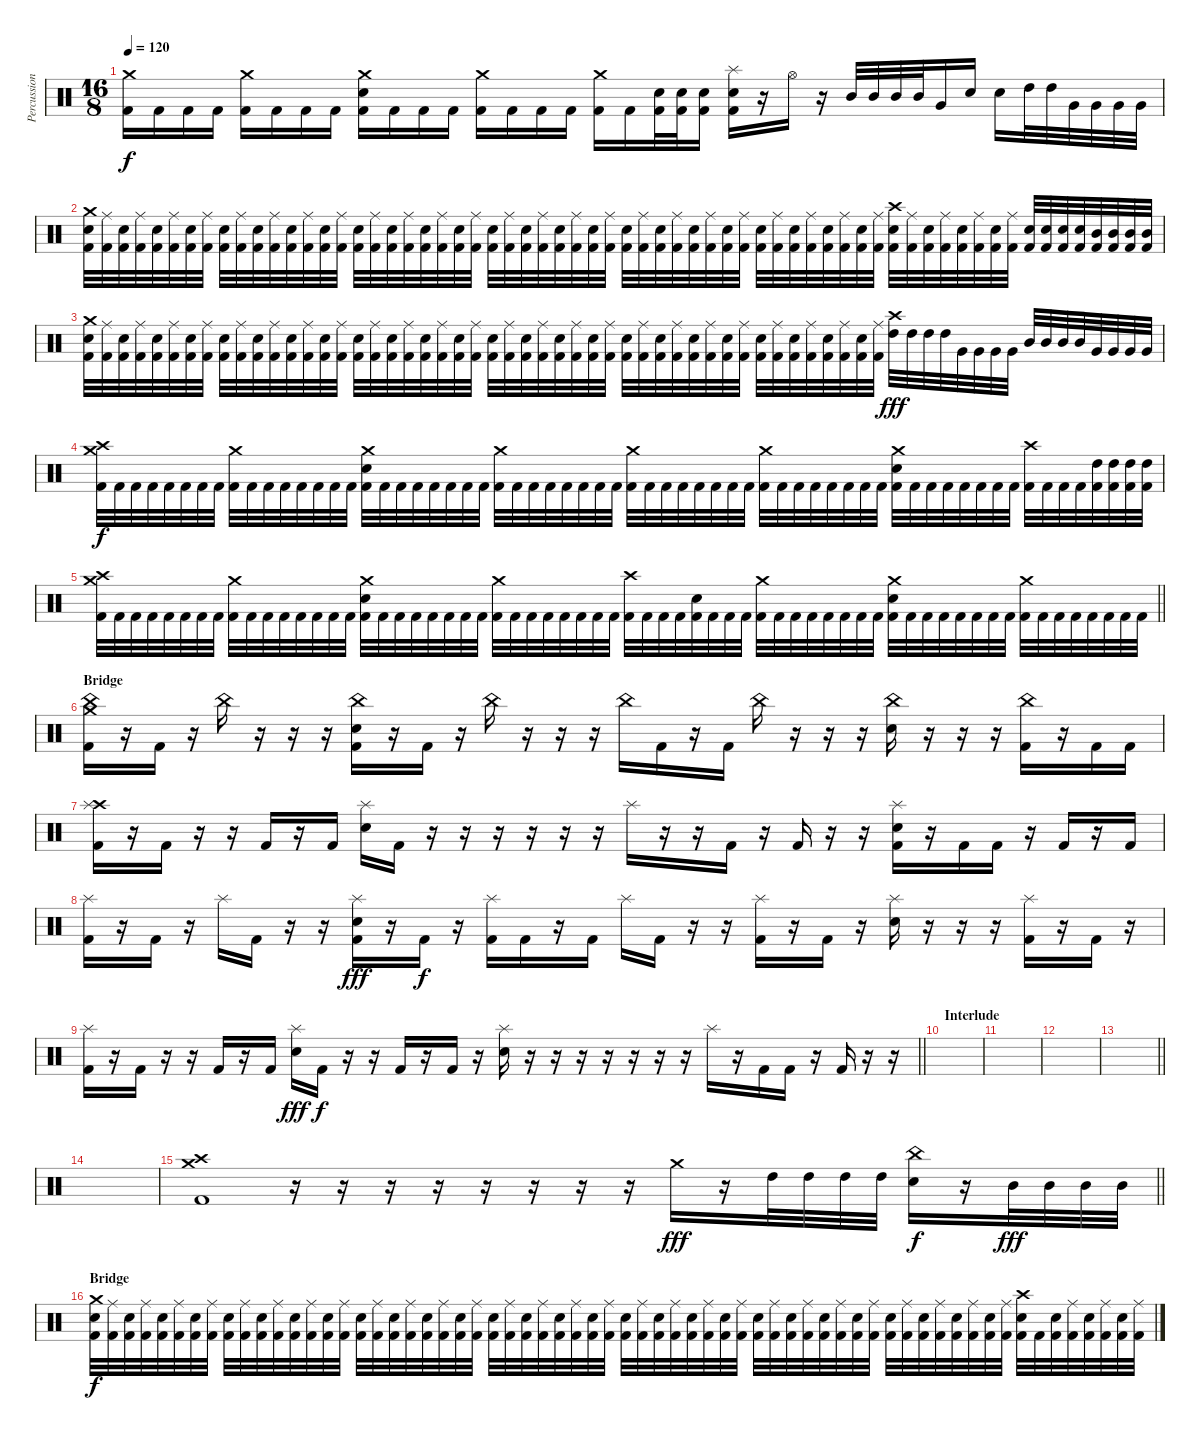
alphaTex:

\track ("Percussion" "Percussion") {instrument percussion}
\staff {score}
\articulation defaults
\ts (16 8)
\tempo 120
\clef neutral
\ks c
("Crash medium (hit)" "Kick (hit) 2").16{dy f} "Kick (hit) 2".16 "Kick (hit) 2".16 "Kick (hit) 2".16 ("Crash medium (hit)" "Kick (hit) 2").16 "Kick (hit) 2".16 "Kick (hit) 2".16 "Kick (hit) 2".16 ("Crash medium (hit)" "Snare (hit) 2" "Kick (hit) 2").16 "Kick (hit) 2".16 "Kick (hit) 2".16 "Kick (hit) 2".16 ("Crash medium (hit)" "Kick (hit) 2").16 "Kick (hit) 2".16 "Kick (hit) 2".16 "Kick (hit) 2".16 ("Crash medium (hit)" "Kick (hit) 2").16 "Kick (hit) 2".16 ("Snare (hit) 2" "Kick (hit) 2").32 ("Snare (hit) 2" "Kick (hit) 2").32 ("Snare (hit) 2" "Kick (hit) 2").16 ("Splash (hit)" "Snare (hit) 2" "Kick (hit) 2").16 r.16 "Hi-Hat (open)".16 r.16 "Mid Tom (hit)".32 "Mid Tom (hit)".32 "Mid Tom (hit)".32 "Mid Tom (hit)".32 "Very Low Tom (hit)".16 "Snare (hit) 2".16 "Snare (hit) 2".16 "High Tom (hit)".32 "High Tom (hit)".32 "Very Low Tom (hit)".32 "Very Low Tom (hit)".32 "Very Low Tom (hit)".32 "Very Low Tom (hit)".32 |
("Crash medium (hit)" "Snare (hit) 2" "Kick (hit) 2").32 ("Ride (middle)" "Kick (hit) 2").32 ("Snare (hit) 2" "Kick (hit) 2").32 ("Ride (middle)" "Kick (hit) 2").32 ("Snare (hit) 2" "Kick (hit) 2").32 ("Ride (middle)" "Kick (hit) 2").32 ("Snare (hit) 2" "Kick (hit) 2").32 ("Ride (middle)" "Kick (hit) 2").32 ("Snare (hit) 2" "Kick (hit) 2").32 ("Ride (middle)" "Kick (hit) 2").32 ("Snare (hit) 2" "Kick (hit) 2").32 ("Ride (middle)" "Kick (hit) 2").32 ("Snare (hit) 2" "Kick (hit) 2").32 ("Ride (middle)" "Kick (hit) 2").32 ("Snare (hit) 2" "Kick (hit) 2").32 ("Ride (middle)" "Kick (hit) 2").32 ("Snare (hit) 2" "Kick (hit) 2").32 ("Ride (middle)" "Kick (hit) 2").32 ("Snare (hit) 2" "Kick (hit) 2").32 ("Ride (middle)" "Kick (hit) 2").32 ("Snare (hit) 2" "Kick (hit) 2").32 ("Ride (middle)" "Kick (hit) 2").32 ("Snare (hit) 2" "Kick (hit) 2").32 ("Ride (middle)" "Kick (hit) 2").32 ("Snare (hit) 2" "Kick (hit) 2").32 ("Ride (middle)" "Kick (hit) 2").32 ("Snare (hit) 2" "Kick (hit) 2").32 ("Ride (middle)" "Kick (hit) 2").32 ("Snare (hit) 2" "Kick (hit) 2").32 ("Ride (middle)" "Kick (hit) 2").32 ("Snare (hit) 2" "Kick (hit) 2").32 ("Ride (middle)" "Kick (hit) 2").32 ("Snare (hit) 2" "Kick (hit) 2").32 ("Ride (middle)" "Kick (hit) 2").32 ("Snare (hit) 2" "Kick (hit) 2").32 ("Ride (middle)" "Kick (hit) 2").32 ("Snare (hit) 2" "Kick (hit) 2").32 ("Ride (middle)" "Kick (hit) 2").32 ("Snare (hit) 2" "Kick (hit) 2").32 ("Ride (middle)" "Kick (hit) 2").32 ("Snare (hit) 2" "Kick (hit) 2").32 ("Ride (middle)" "Kick (hit) 2").32 ("Snare (hit) 2" "Kick (hit) 2").32 ("Ride (middle)" "Kick (hit) 2").32 ("Snare (hit) 2" "Kick (hit) 2").32 ("Ride (middle)" "Kick (hit) 2").32 ("Snare (hit) 2" "Kick (hit) 2").32 ("Ride (middle)" "Kick (hit) 2").32 ("Crash high (hit)" "Snare (hit) 2" "Kick (hit) 2").32 ("Ride (middle)" "Kick (hit) 2").32 ("Snare (hit) 2" "Kick (hit) 2").32 ("Ride (middle)" "Kick (hit) 2").32 ("Snare (hit) 2" "Kick (hit) 2").32 ("Ride (middle)" "Kick (hit) 2").32 ("Snare (hit) 2" "Kick (hit) 2").32 ("Ride (middle)" "Kick (hit) 2").32 ("Snare (hit) 2" "Kick (hit) 2").32 ("Snare (hit) 2" "Kick (hit) 2").32 ("Snare (hit) 2" "Kick (hit) 2").32 ("Snare (hit) 2" "Kick (hit) 2").32 ("Mid Tom (hit)" "Kick (hit) 2").32 ("Mid Tom (hit)" "Kick (hit) 2").32 ("Mid Tom (hit)" "Kick (hit) 2").32 ("Mid Tom (hit)" "Kick (hit) 2").32 |
("Crash medium (hit)" "Snare (hit) 2" "Kick (hit) 2").32 ("Ride (middle)" "Kick (hit) 2").32 ("Snare (hit) 2" "Kick (hit) 2").32 ("Ride (middle)" "Kick (hit) 2").32 ("Snare (hit) 2" "Kick (hit) 2").32 ("Ride (middle)" "Kick (hit) 2").32 ("Snare (hit) 2" "Kick (hit) 2").32 ("Ride (middle)" "Kick (hit) 2").32 ("Snare (hit) 2" "Kick (hit) 2").32 ("Ride (middle)" "Kick (hit) 2").32 ("Snare (hit) 2" "Kick (hit) 2").32 ("Ride (middle)" "Kick (hit) 2").32 ("Snare (hit) 2" "Kick (hit) 2").32 ("Ride (middle)" "Kick (hit) 2").32 ("Snare (hit) 2" "Kick (hit) 2").32 ("Ride (middle)" "Kick (hit) 2").32 ("Snare (hit) 2" "Kick (hit) 2").32 ("Ride (middle)" "Kick (hit) 2").32 ("Snare (hit) 2" "Kick (hit) 2").32 ("Ride (middle)" "Kick (hit) 2").32 ("Snare (hit) 2" "Kick (hit) 2").32 ("Ride (middle)" "Kick (hit) 2").32 ("Snare (hit) 2" "Kick (hit) 2").32 ("Ride (middle)" "Kick (hit) 2").32 ("Snare (hit) 2" "Kick (hit) 2").32 ("Ride (middle)" "Kick (hit) 2").32 ("Snare (hit) 2" "Kick (hit) 2").32 ("Ride (middle)" "Kick (hit) 2").32 ("Snare (hit) 2" "Kick (hit) 2").32 ("Ride (middle)" "Kick (hit) 2").32 ("Snare (hit) 2" "Kick (hit) 2").32 ("Ride (middle)" "Kick (hit) 2").32 ("Snare (hit) 2" "Kick (hit) 2").32 ("Ride (middle)" "Kick (hit) 2").32 ("Snare (hit) 2" "Kick (hit) 2").32 ("Ride (middle)" "Kick (hit) 2").32 ("Snare (hit) 2" "Kick (hit) 2").32 ("Ride (middle)" "Kick (hit) 2").32 ("Snare (hit) 2" "Kick (hit) 2").32 ("Ride (middle)" "Kick (hit) 2").32 ("Snare (hit) 2" "Kick (hit) 2").32 ("Ride (middle)" "Kick (hit) 2").32 ("Snare (hit) 2" "Kick (hit) 2").32 ("Ride (middle)" "Kick (hit) 2").32 ("Snare (hit) 2" "Kick (hit) 2").32 ("Ride (middle)" "Kick (hit) 2").32 ("Snare (hit) 2" "Kick (hit) 2").32 ("Ride (middle)" "Kick (hit) 2").32 ("Crash high (hit)" "High Tom (hit)").32{dy fff} "High Tom (hit)".32 "High Tom (hit)".32 "High Tom (hit)".32 "Very Low Tom (hit)".32 "Very Low Tom (hit)".32 "Very Low Tom (hit)".32 "Very Low Tom (hit)".32 "Mid Tom (hit)".32 "Mid Tom (hit)".32 "Mid Tom (hit)".32 "Mid Tom (hit)".32 "Very Low Tom (hit)".32 "Very Low Tom (hit)".32 "Very Low Tom (hit)".32 "Very Low Tom (hit)".32 |
("Crash medium (hit)" "Crash high (hit)" "Kick (hit) 2").32{dy f} "Kick (hit) 2".32 "Kick (hit) 2".32 "Kick (hit) 2".32 "Kick (hit) 2".32 "Kick (hit) 2".32 "Kick (hit) 2".32 "Kick (hit) 2".32 ("Crash medium (hit)" "Kick (hit) 2").32 "Kick (hit) 2".32 "Kick (hit) 2".32 "Kick (hit) 2".32 "Kick (hit) 2".32 "Kick (hit) 2".32 "Kick (hit) 2".32 "Kick (hit) 2".32 ("Crash medium (hit)" "Snare (hit) 2" "Kick (hit) 2").32 "Kick (hit) 2".32 "Kick (hit) 2".32 "Kick (hit) 2".32 "Kick (hit) 2".32 "Kick (hit) 2".32 "Kick (hit) 2".32 "Kick (hit) 2".32 ("Crash medium (hit)" "Kick (hit) 2").32 "Kick (hit) 2".32 "Kick (hit) 2".32 "Kick (hit) 2".32 "Kick (hit) 2".32 "Kick (hit) 2".32 "Kick (hit) 2".32 "Kick (hit) 2".32 ("Crash medium (hit)" "Kick (hit) 2").32 "Kick (hit) 2".32 "Kick (hit) 2".32 "Kick (hit) 2".32 "Kick (hit) 2".32 "Kick (hit) 2".32 "Kick (hit) 2".32 "Kick (hit) 2".32 ("Crash medium (hit)" "Kick (hit) 2").32 "Kick (hit) 2".32 "Kick (hit) 2".32 "Kick (hit) 2".32 "Kick (hit) 2".32 "Kick (hit) 2".32 "Kick (hit) 2".32 "Kick (hit) 2".32 ("Crash medium (hit)" "Snare (hit) 2" "Kick (hit) 2").32 "Kick (hit) 2".32 "Kick (hit) 2".32 "Kick (hit) 2".32 "Kick (hit) 2".32 "Kick (hit) 2".32 "Kick (hit) 2".32 "Kick (hit) 2".32 ("Crash high (hit)" "Kick (hit) 2").32 "Kick (hit) 2".32 "Kick (hit) 2".32 "Kick (hit) 2".32 ("High Tom (hit)" "Kick (hit) 2").32 ("High Tom (hit)" "Kick (hit) 2").32 ("High Tom (hit)" "Kick (hit) 2").32 ("High Tom (hit)" "Kick (hit) 2").32 |
\barLineRight lightlight
("Crash medium (hit)" "Crash high (hit)" "Kick (hit) 2").32 "Kick (hit) 2".32 "Kick (hit) 2".32 "Kick (hit) 2".32 "Kick (hit) 2".32 "Kick (hit) 2".32 "Kick (hit) 2".32 "Kick (hit) 2".32 ("Crash medium (hit)" "Kick (hit) 2").32 "Kick (hit) 2".32 "Kick (hit) 2".32 "Kick (hit) 2".32 "Kick (hit) 2".32 "Kick (hit) 2".32 "Kick (hit) 2".32 "Kick (hit) 2".32 ("Crash medium (hit)" "Snare (hit) 2" "Kick (hit) 2").32 "Kick (hit) 2".32 "Kick (hit) 2".32 "Kick (hit) 2".32 "Kick (hit) 2".32 "Kick (hit) 2".32 "Kick (hit) 2".32 "Kick (hit) 2".32 ("Crash medium (hit)" "Kick (hit) 2").32 "Kick (hit) 2".32 "Kick (hit) 2".32 "Kick (hit) 2".32 "Kick (hit) 2".32 "Kick (hit) 2".32 "Kick (hit) 2".32 "Kick (hit) 2".32 ("Crash high (hit)" "Kick (hit) 2").32 "Kick (hit) 2".32 "Kick (hit) 2".32 "Kick (hit) 2".32 ("Snare (hit) 2" "Kick (hit) 2").32 "Kick (hit) 2".32 "Kick (hit) 2".32 "Kick (hit) 2".32 ("Crash medium (hit)" "Kick (hit) 2").32 "Kick (hit) 2".32 "Kick (hit) 2".32 "Kick (hit) 2".32 "Kick (hit) 2".32 "Kick (hit) 2".32 "Kick (hit) 2".32 "Kick (hit) 2".32 ("Crash medium (hit)" "Snare (hit) 2" "Kick (hit) 2").32 "Kick (hit) 2".32 "Kick (hit) 2".32 "Kick (hit) 2".32 "Kick (hit) 2".32 "Kick (hit) 2".32 "Kick (hit) 2".32 "Kick (hit) 2".32 ("Crash medium (hit)" "Kick (hit) 2").32 "Kick (hit) 2".32 "Kick (hit) 2".32 "Kick (hit) 2".32 "Kick (hit) 2".32 "Kick (hit) 2".32 "Kick (hit) 2".32 "Kick (hit) 2".32 |
\section ("" "Bridge")
("Crash medium (hit)" "China (hit)" "Kick (hit) 2").16 r.16 "Kick (hit) 2".16 r.16 "China (hit)".16 r.16 r.16 r.16 ("China (hit)" "Snare (hit) 2" "Kick (hit) 2").16 r.16 "Kick (hit) 2".16 r.16 "China (hit)".16 r.16 r.16 r.16 "China (hit)".16 "Kick (hit) 2".16 r.16 "Kick (hit) 2".16 "China (hit)".16 r.16 r.16 r.16 ("China (hit)" "Snare (hit) 2").16 r.16 r.16 r.16 ("China (hit)" "Kick (hit) 2").16 r.16 "Kick (hit) 2".16 "Kick (hit) 2".16 |
("Crash high (hit)" "Splash (hit)" "Kick (hit) 2").16 r.16 "Kick (hit) 2".16 r.16 r.16 "Kick (hit) 2".16 r.16 "Kick (hit) 2".16 ("Splash (hit)" "Snare (hit) 2").16 "Kick (hit) 2".16 r.16 r.16 r.16 r.16 r.16 r.16 "Splash (hit)".16 r.16 r.16 "Kick (hit) 2".16 r.16 "Kick (hit) 2".16 r.16 r.16 ("Splash (hit)" "Snare (hit) 2" "Kick (hit) 2").16 r.16 "Kick (hit) 2".16 "Kick (hit) 2".16 r.16 "Kick (hit) 2".16 r.16 "Kick (hit) 2".16 |
("Splash (hit)" "Kick (hit) 2").16 r.16 "Kick (hit) 2".16 r.16 "Splash (hit)".16 "Kick (hit) 2".16 r.16 r.16 ("Splash (hit)" "Snare (hit) 2" "Kick (hit) 2").16{dy fff} r.16 "Kick (hit) 2".16{dy f} r.16 ("Splash (hit)" "Kick (hit) 2").16 "Kick (hit) 2".16 r.16 "Kick (hit) 2".16 "Splash (hit)".16 "Kick (hit) 2".16 r.16 r.16 ("Splash (hit)" "Kick (hit) 2").16 r.16 "Kick (hit) 2".16 r.16 ("Splash (hit)" "Snare (hit) 2").16 r.16 r.16 r.16 ("Splash (hit)" "Kick (hit) 2").16 r.16 "Kick (hit) 2".16 r.16 |
\barLineRight lightlight
("Splash (hit)" "Kick (hit) 2").16 r.16 "Kick (hit) 2".16 r.16 r.16 "Kick (hit) 2".16 r.16 "Kick (hit) 2".16 ("Splash (hit)" "Snare (hit) 2").16{dy fff} "Kick (hit) 2".16{dy f} r.16 r.16 "Kick (hit) 2".16 r.16 "Kick (hit) 2".16 r.16 ("Splash (hit)" "Snare (hit) 2").16 r.16 r.16 r.16 r.16 r.16 r.16 r.16 "Splash (hit)".16 r.16 "Kick (hit) 2".16 "Kick (hit) 2".16 r.16 "Kick (hit) 2".16 r.16 r.16 |
\section ("" "Interlude")
|
|
|
\barLineRight lightlight
|
|
\barLineRight lightlight
("Crash medium (hit)" "Crash high (hit)" "Kick (hit) 2").1 r.16 r.16 r.16 r.16 r.16 r.16 r.16 r.16 "Crash medium (hit)".16{dy fff} r.16 "High Tom (hit)".32 "High Tom (hit)".32 "High Tom (hit)".32 "High Tom (hit)".32 ("China (hit)" "Snare (hit) 2").16{dy f} r.16 "Mid Tom (hit)".32{dy fff} "Mid Tom (hit)".32 "Mid Tom (hit)".32 "Mid Tom (hit)".32 |
\section ("" "Bridge")
("Crash medium (hit)" "Snare (hit) 2" "Kick (hit) 2").32{dy f} ("Ride (middle)" "Kick (hit) 2").32 ("Snare (hit) 2" "Kick (hit) 2").32 ("Ride (middle)" "Kick (hit) 2").32 ("Snare (hit) 2" "Kick (hit) 2").32 ("Ride (middle)" "Kick (hit) 2").32 ("Snare (hit) 2" "Kick (hit) 2").32 ("Ride (middle)" "Kick (hit) 2").32 ("Snare (hit) 2" "Kick (hit) 2").32 ("Ride (middle)" "Kick (hit) 2").32 ("Snare (hit) 2" "Kick (hit) 2").32 ("Ride (middle)" "Kick (hit) 2").32 ("Snare (hit) 2" "Kick (hit) 2").32 ("Ride (middle)" "Kick (hit) 2").32 ("Snare (hit) 2" "Kick (hit) 2").32 ("Ride (middle)" "Kick (hit) 2").32 ("Snare (hit) 2" "Kick (hit) 2").32 ("Ride (middle)" "Kick (hit) 2").32 ("Snare (hit) 2" "Kick (hit) 2").32 ("Ride (middle)" "Kick (hit) 2").32 ("Snare (hit) 2" "Kick (hit) 2").32 ("Ride (middle)" "Kick (hit) 2").32 ("Snare (hit) 2" "Kick (hit) 2").32 ("Ride (middle)" "Kick (hit) 2").32 ("Snare (hit) 2" "Kick (hit) 2").32 ("Ride (middle)" "Kick (hit) 2").32 ("Snare (hit) 2" "Kick (hit) 2").32 ("Ride (middle)" "Kick (hit) 2").32 ("Snare (hit) 2" "Kick (hit) 2").32 ("Ride (middle)" "Kick (hit) 2").32 ("Snare (hit) 2" "Kick (hit) 2").32 ("Ride (middle)" "Kick (hit) 2").32 ("Snare (hit) 2" "Kick (hit) 2").32 ("Ride (middle)" "Kick (hit) 2").32 ("Snare (hit) 2" "Kick (hit) 2").32 ("Ride (middle)" "Kick (hit) 2").32 ("Snare (hit) 2" "Kick (hit) 2").32 ("Ride (middle)" "Kick (hit) 2").32 ("Snare (hit) 2" "Kick (hit) 2").32 ("Ride (middle)" "Kick (hit) 2").32 ("Snare (hit) 2" "Kick (hit) 2").32 ("Ride (middle)" "Kick (hit) 2").32 ("Snare (hit) 2" "Kick (hit) 2").32 ("Ride (middle)" "Kick (hit) 2").32 ("Snare (hit) 2" "Kick (hit) 2").32 ("Ride (middle)" "Kick (hit) 2").32 ("Snare (hit) 2" "Kick (hit) 2").32 ("Ride (middle)" "Kick (hit) 2").32 ("Snare (hit) 2" "Kick (hit) 2").32 ("Ride (middle)" "Kick (hit) 2").32 ("Snare (hit) 2" "Kick (hit) 2").32 ("Ride (middle)" "Kick (hit) 2").32 ("Snare (hit) 2" "Kick (hit) 2").32 ("Ride (middle)" "Kick (hit) 2").32 ("Snare (hit) 2" "Kick (hit) 2").32 ("Ride (middle)" "Kick (hit) 2").32 ("Crash high (hit)" "Snare (hit) 2" "Kick (hit) 2").32 "Kick (hit) 2".32 ("Snare (hit) 2" "Kick (hit) 2").32 ("Ride (middle)" "Kick (hit) 2").32 ("Snare (hit) 2" "Kick (hit) 2").32 ("Ride (middle)" "Kick (hit) 2").32 ("Snare (hit) 2" "Kick (hit) 2").32 ("Ride (middle)" "Kick (hit) 2").32
